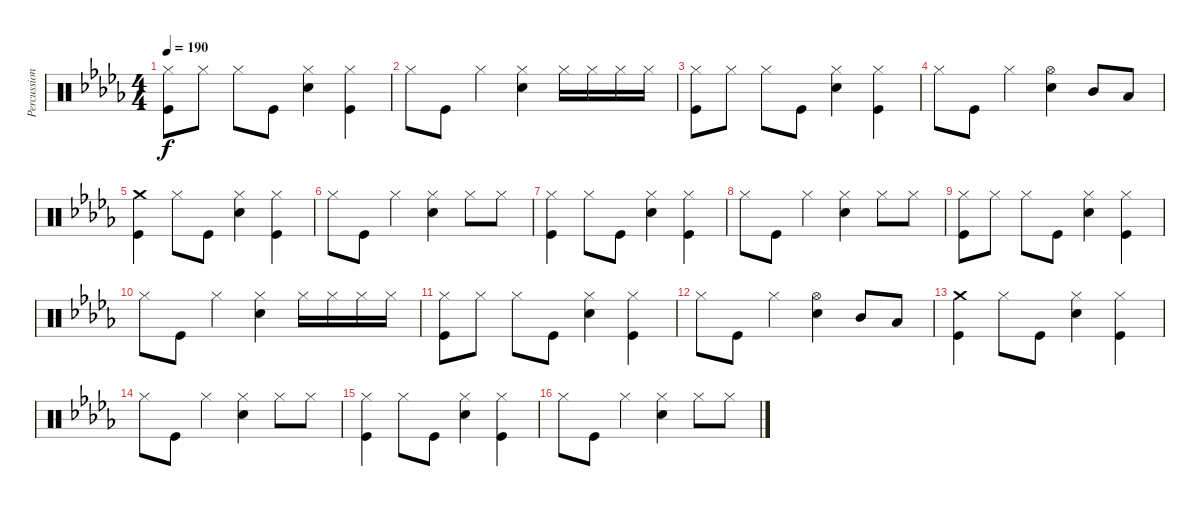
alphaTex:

\track ("Percussion" "Percussion") {instrument percussion}
\staff {score}
\articulation defaults
\ts (4 4)
\tempo 190
\clef neutral
\ks db
("Hi-Hat (closed)" "Kick (hit)").8{dy f} "Hi-Hat (closed)".8 "Hi-Hat (closed)".8 "Kick (hit)".8 ("Hi-Hat (closed)" "Electric Snare (hit)").4 ("Hi-Hat (closed)" "Kick (hit)").4 |
"Hi-Hat (closed)".8 "Kick (hit)".8 "Hi-Hat (closed)".4 ("Hi-Hat (closed)" "Electric Snare (hit)").4 "Hi-Hat (closed)".16 "Hi-Hat (closed)".16 "Hi-Hat (closed)".16 "Hi-Hat (closed)".16 |
("Hi-Hat (closed)" "Kick (hit)").8 "Hi-Hat (closed)".8 "Hi-Hat (closed)".8 "Kick (hit)".8 ("Hi-Hat (closed)" "Electric Snare (hit)").4 ("Hi-Hat (closed)" "Kick (hit)").4 |
"Hi-Hat (closed)".8 "Kick (hit)".8 "Hi-Hat (closed)".4 ("Hi-Hat (open)" "Electric Snare (hit)").4 "Mid Tom (hit)".8 "Low Tom (hit)".8 |
("Crash medium (hit)" "Kick (hit)").4 "Hi-Hat (closed)".8 "Kick (hit)".8 ("Hi-Hat (closed)" "Electric Snare (hit)").4 ("Hi-Hat (closed)" "Kick (hit)").4 |
"Hi-Hat (closed)".8 "Kick (hit)".8 "Hi-Hat (closed)".4 ("Hi-Hat (closed)" "Electric Snare (hit)").4 "Hi-Hat (closed)".8 "Hi-Hat (closed)".8 |
("Hi-Hat (closed)" "Kick (hit)").4 "Hi-Hat (closed)".8 "Kick (hit)".8 ("Hi-Hat (closed)" "Electric Snare (hit)").4 ("Hi-Hat (closed)" "Kick (hit)").4 |
"Hi-Hat (closed)".8 "Kick (hit)".8 "Hi-Hat (closed)".4 ("Hi-Hat (closed)" "Electric Snare (hit)").4 "Hi-Hat (closed)".8 "Hi-Hat (closed)".8 |
("Hi-Hat (closed)" "Kick (hit)").8 "Hi-Hat (closed)".8 "Hi-Hat (closed)".8 "Kick (hit)".8 ("Hi-Hat (closed)" "Electric Snare (hit)").4 ("Hi-Hat (closed)" "Kick (hit)").4 |
"Hi-Hat (closed)".8 "Kick (hit)".8 "Hi-Hat (closed)".4 ("Hi-Hat (closed)" "Electric Snare (hit)").4 "Hi-Hat (closed)".16 "Hi-Hat (closed)".16 "Hi-Hat (closed)".16 "Hi-Hat (closed)".16 |
("Hi-Hat (closed)" "Kick (hit)").8 "Hi-Hat (closed)".8 "Hi-Hat (closed)".8 "Kick (hit)".8 ("Hi-Hat (closed)" "Electric Snare (hit)").4 ("Hi-Hat (closed)" "Kick (hit)").4 |
"Hi-Hat (closed)".8 "Kick (hit)".8 "Hi-Hat (closed)".4 ("Hi-Hat (open)" "Electric Snare (hit)").4 "Mid Tom (hit)".8 "Low Tom (hit)".8 |
("Crash medium (hit)" "Kick (hit)").4 "Hi-Hat (closed)".8 "Kick (hit)".8 ("Hi-Hat (closed)" "Electric Snare (hit)").4 ("Hi-Hat (closed)" "Kick (hit)").4 |
"Hi-Hat (closed)".8 "Kick (hit)".8 "Hi-Hat (closed)".4 ("Hi-Hat (closed)" "Electric Snare (hit)").4 "Hi-Hat (closed)".8 "Hi-Hat (closed)".8 |
("Hi-Hat (closed)" "Kick (hit)").4 "Hi-Hat (closed)".8 "Kick (hit)".8 ("Hi-Hat (closed)" "Electric Snare (hit)").4 ("Hi-Hat (closed)" "Kick (hit)").4 |
"Hi-Hat (closed)".8 "Kick (hit)".8 "Hi-Hat (closed)".4 ("Hi-Hat (closed)" "Electric Snare (hit)").4 "Hi-Hat (closed)".8 "Hi-Hat (closed)".8
